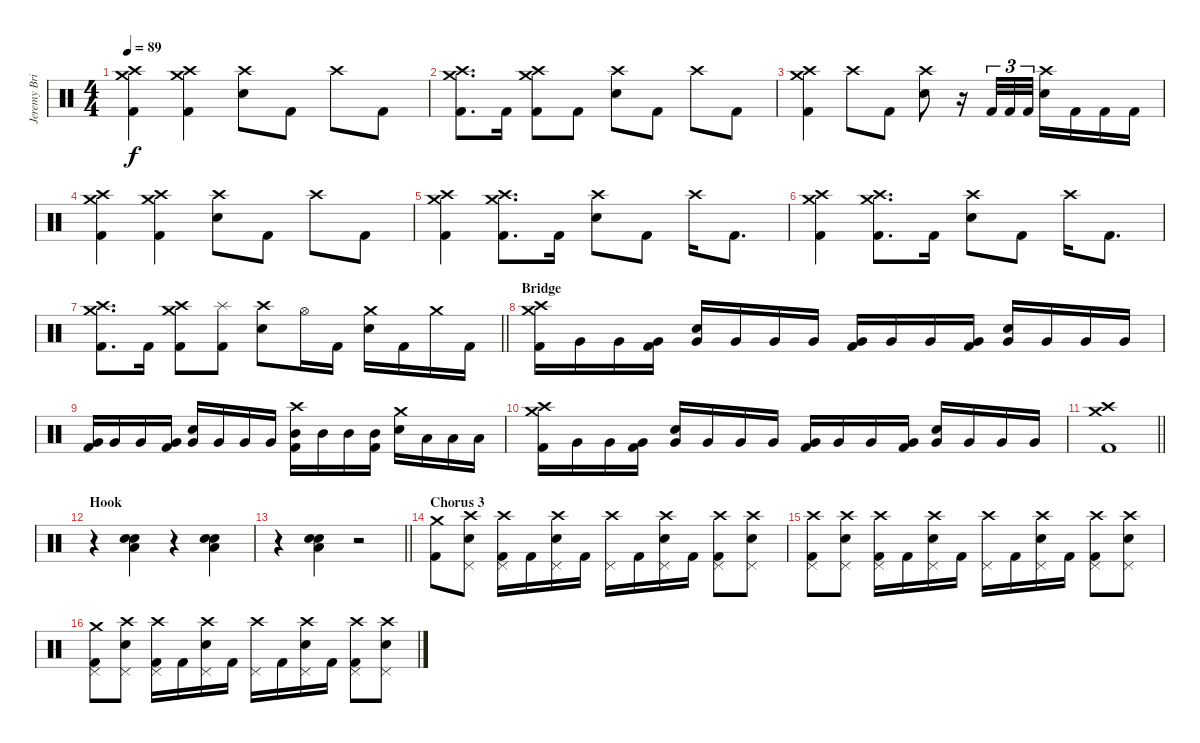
\track ("Jeremy Brian [Drums]" "Jeremy Bri") {instrument percussion}
\staff {score}
\articulation defaults
\ts (4 4)
\tempo 89
\clef neutral
\ks c
("Crash high (hit)" "Crash medium (hit)" "Kick (hit) 2").4{dy f} ("Crash high (hit)" "Crash medium (hit)" "Kick (hit) 2").4 ("Crash high (hit)" "Electric Snare (hit)").8 "Kick (hit) 2".8 "Crash high (hit)".8 "Kick (hit) 2".8 |
("Crash high (hit)" "Crash medium (hit)" "Kick (hit) 2").8{d} "Kick (hit) 2".16 ("Crash high (hit)" "Crash medium (hit)" "Kick (hit) 2").8 "Kick (hit) 2".8 ("Crash high (hit)" "Electric Snare (hit)").8 "Kick (hit) 2".8 "Crash high (hit)".8 "Kick (hit) 2".8 |
("Crash high (hit)" "Crash medium (hit)" "Kick (hit) 2").4 "Crash high (hit)".8 "Kick (hit) 2".8 ("Crash high (hit)" "Electric Snare (hit)").8 r.16 "Kick (hit) 2".32{tu (3 2)} "Kick (hit) 2".32{tu (3 2)} "Kick (hit) 2".32{tu (3 2)} ("Crash high (hit)" "Electric Snare (hit)").16 "Kick (hit) 2".16 "Kick (hit) 2".16 "Kick (hit) 2".16 |
("Crash high (hit)" "Crash medium (hit)" "Kick (hit) 2").4 ("Crash high (hit)" "Crash medium (hit)" "Kick (hit) 2").4 ("Crash high (hit)" "Electric Snare (hit)").8 "Kick (hit) 2".8 "Crash high (hit)".8 "Kick (hit) 2".8 |
("Crash high (hit)" "Crash medium (hit)" "Kick (hit) 2").4 ("Crash high (hit)" "Crash medium (hit)" "Kick (hit) 2").8{d} "Kick (hit) 2".16 ("Crash high (hit)" "Electric Snare (hit)").8 "Kick (hit) 2".8 "Crash high (hit)".16 "Kick (hit) 2".8{d} |
("Crash high (hit)" "Crash medium (hit)" "Kick (hit) 2").4 ("Crash high (hit)" "Crash medium (hit)" "Kick (hit) 2").8{d} "Kick (hit) 2".16 ("Crash high (hit)" "Electric Snare (hit)").8 "Kick (hit) 2".8 "Crash high (hit)".16 "Kick (hit) 2".8{d} |
\barLineRight lightlight
("Crash high (hit)" "Crash medium (hit)" "Kick (hit) 2").8{d} "Kick (hit) 2".16 ("Crash high (hit)" "Crash medium (hit)" "Kick (hit) 2").8 ("Splash (hit)" "Kick (hit) 2").8 ("Crash high (hit)" "Electric Snare (hit)").8 "Hi-Hat (open)".16 "Kick (hit) 2".16 ("Crash medium (hit)" "Electric Snare (hit)").16 "Kick (hit) 2".16 "Crash medium (hit)".16 "Kick (hit) 2".16 |
\section ("" "Bridge")
("Crash high (hit)" "Crash medium (hit)" "Kick (hit) 2").16 "Very Low Tom (hit)".16 "Very Low Tom (hit)".16 ("Very Low Tom (hit)" "Kick (hit) 2").16 ("Very Low Tom (hit)" "Electric Snare (hit)").16 "Very Low Tom (hit)".16 "Very Low Tom (hit)".16 "Very Low Tom (hit)".16 ("Very Low Tom (hit)" "Kick (hit) 2").16 "Very Low Tom (hit)".16 "Very Low Tom (hit)".16 ("Very Low Tom (hit)" "Kick (hit) 2").16 ("Very Low Tom (hit)" "Electric Snare (hit)").16 "Very Low Tom (hit)".16 "Very Low Tom (hit)".16 "Very Low Tom (hit)".16 |
("Very Low Tom (hit)" "Kick (hit) 2").16 "Very Low Tom (hit)".16 "Very Low Tom (hit)".16 ("Very Low Tom (hit)" "Kick (hit) 2").16 ("Very Low Tom (hit)" "Electric Snare (hit)").16 "Very Low Tom (hit)".16 "Very Low Tom (hit)".16 "Very Low Tom (hit)".16 ("Crash high (hit)" "Mid Tom (hit)" "Kick (hit) 2").16 "Mid Tom (hit)".16 "Mid Tom (hit)".16 ("Mid Tom (hit)" "Kick (hit) 2").16 ("Crash medium (hit)" "Electric Snare (hit)").16 "Low Tom (hit)".16 "Low Tom (hit)".16 "Low Tom (hit)".16 |
("Crash high (hit)" "Crash medium (hit)" "Kick (hit) 2").16 "Very Low Tom (hit)".16 "Very Low Tom (hit)".16 ("Very Low Tom (hit)" "Kick (hit) 2").16 ("Very Low Tom (hit)" "Electric Snare (hit)").16 "Very Low Tom (hit)".16 "Very Low Tom (hit)".16 "Very Low Tom (hit)".16 ("Very Low Tom (hit)" "Kick (hit) 2").16 "Very Low Tom (hit)".16 "Very Low Tom (hit)".16 ("Very Low Tom (hit)" "Kick (hit) 2").16 ("Very Low Tom (hit)" "Electric Snare (hit)").16 "Very Low Tom (hit)".16 "Very Low Tom (hit)".16 "Very Low Tom (hit)".16 |
\barLineRight lightlight
("Crash high (hit)" "Crash medium (hit)" "Kick (hit) 2").1 |
\section ("" "Hook")
r.4 ("Hand Clap (hit)" "Low Floor Tom (hit)" "Snare (hit) 2").4 r.4 ("Hand Clap (hit)" "Low Floor Tom (hit)" "Snare (hit) 2").4 |
\barLineRight lightlight
r.4 ("Hand Clap (hit)" "Low Floor Tom (hit)" "Snare (hit) 2").4 r.2 |
\section ("" "Chorus 3")
("Crash medium (hit)" "Kick (hit) 2").8 ("Crash high (hit)" "Pedal Hi-Hat (hit)" "Electric Snare (hit)").8 ("Crash high (hit)" "Pedal Hi-Hat (hit)" "Kick (hit) 2").16 "Kick (hit) 2".16 ("Crash high (hit)" "Pedal Hi-Hat (hit)" "Electric Snare (hit)").16 "Kick (hit) 2".16 ("Crash high (hit)" "Pedal Hi-Hat (hit)").16 "Kick (hit) 2".16 ("Crash high (hit)" "Pedal Hi-Hat (hit)" "Electric Snare (hit)").16 "Kick (hit) 2".16 ("Crash high (hit)" "Pedal Hi-Hat (hit)" "Kick (hit) 2").8 ("Crash high (hit)" "Pedal Hi-Hat (hit)" "Electric Snare (hit)").8 |
("Crash high (hit)" "Pedal Hi-Hat (hit)" "Kick (hit) 2").8 ("Crash high (hit)" "Pedal Hi-Hat (hit)" "Electric Snare (hit)").8 ("Crash high (hit)" "Pedal Hi-Hat (hit)" "Kick (hit) 2").16 "Kick (hit) 2".16 ("Crash high (hit)" "Pedal Hi-Hat (hit)" "Electric Snare (hit)").16 "Kick (hit) 2".16 ("Crash high (hit)" "Pedal Hi-Hat (hit)").16 "Kick (hit) 2".16 ("Crash high (hit)" "Pedal Hi-Hat (hit)" "Electric Snare (hit)").16 "Kick (hit) 2".16 ("Crash high (hit)" "Pedal Hi-Hat (hit)" "Kick (hit) 2").8 ("Crash high (hit)" "Pedal Hi-Hat (hit)" "Electric Snare (hit)").8 |
("Crash medium (hit)" "Pedal Hi-Hat (hit)" "Kick (hit) 2").8 ("Crash high (hit)" "Pedal Hi-Hat (hit)" "Electric Snare (hit)").8 ("Crash high (hit)" "Pedal Hi-Hat (hit)" "Kick (hit) 2").16 "Kick (hit) 2".16 ("Crash high (hit)" "Pedal Hi-Hat (hit)" "Electric Snare (hit)").16 "Kick (hit) 2".16 ("Crash high (hit)" "Pedal Hi-Hat (hit)").16 "Kick (hit) 2".16 ("Crash high (hit)" "Pedal Hi-Hat (hit)" "Electric Snare (hit)").16 "Kick (hit) 2".16 ("Crash high (hit)" "Pedal Hi-Hat (hit)" "Kick (hit) 2").8 ("Crash high (hit)" "Pedal Hi-Hat (hit)" "Electric Snare (hit)").8
